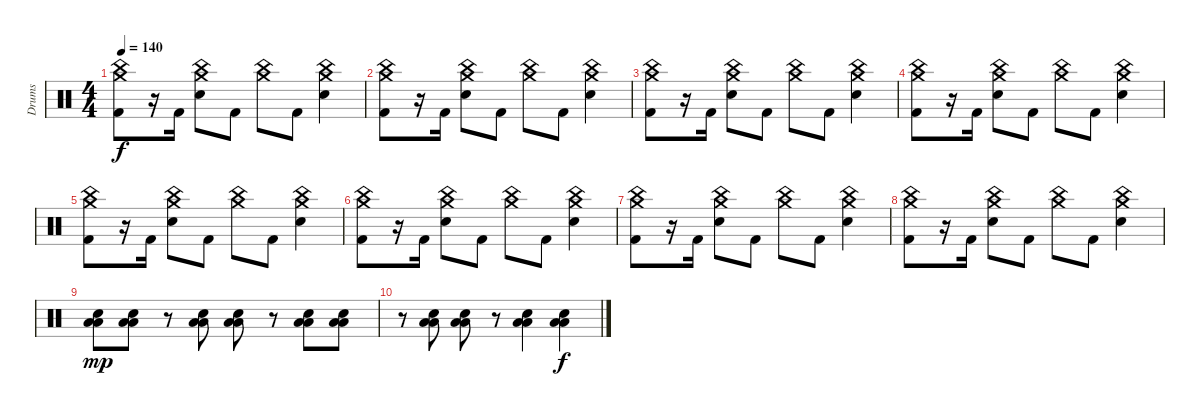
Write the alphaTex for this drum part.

\track ("Drums" "Drums") {instrument percussion}
\staff {score}
\articulation defaults
\ts (4 4)
\tempo 140
\clef neutral
\ks c
("Kick (hit) 2" "China (hit)" "Crash medium (hit)").8{dy f} r.16 "Kick (hit) 2".16 ("Electric Snare (hit)" "China (hit)" "Crash medium (hit)").8 "Kick (hit) 2".8 ("China (hit)" "Crash medium (hit)").8 "Kick (hit) 2".8 ("Electric Snare (hit)" "China (hit)" "Crash medium (hit)").4 |
("Kick (hit) 2" "China (hit)" "Crash medium (hit)").8 r.16 "Kick (hit) 2".16 ("Electric Snare (hit)" "China (hit)" "Crash medium (hit)").8 "Kick (hit) 2".8 ("China (hit)" "Crash medium (hit)").8 "Kick (hit) 2".8 ("Electric Snare (hit)" "China (hit)" "Crash medium (hit)").4 |
("Kick (hit) 2" "China (hit)" "Crash medium (hit)").8 r.16 "Kick (hit) 2".16 ("Electric Snare (hit)" "China (hit)" "Crash medium (hit)").8 "Kick (hit) 2".8 ("China (hit)" "Crash medium (hit)").8 "Kick (hit) 2".8 ("Electric Snare (hit)" "China (hit)" "Crash medium (hit)").4 |
("Kick (hit) 2" "China (hit)" "Crash medium (hit)").8 r.16 "Kick (hit) 2".16 ("Electric Snare (hit)" "China (hit)" "Crash medium (hit)").8 "Kick (hit) 2".8 ("China (hit)" "Crash medium (hit)").8 "Kick (hit) 2".8 ("Electric Snare (hit)" "China (hit)" "Crash medium (hit)").4 |
("Kick (hit) 2" "China (hit)" "Crash medium (hit)").8 r.16 "Kick (hit) 2".16 ("Electric Snare (hit)" "China (hit)" "Crash medium (hit)").8 "Kick (hit) 2".8 ("China (hit)" "Crash medium (hit)").8 "Kick (hit) 2".8 ("Electric Snare (hit)" "China (hit)" "Crash medium (hit)").4 |
("Kick (hit) 2" "China (hit)" "Crash medium (hit)").8 r.16 "Kick (hit) 2".16 ("Electric Snare (hit)" "China (hit)" "Crash medium (hit)").8 "Kick (hit) 2".8 ("China (hit)" "Crash medium (hit)").8 "Kick (hit) 2".8 ("Electric Snare (hit)" "China (hit)" "Crash medium (hit)").4 |
("Kick (hit) 2" "China (hit)" "Crash medium (hit)").8 r.16 "Kick (hit) 2".16 ("Electric Snare (hit)" "China (hit)" "Crash medium (hit)").8 "Kick (hit) 2".8 ("China (hit)" "Crash medium (hit)").8 "Kick (hit) 2".8 ("Electric Snare (hit)" "China (hit)" "Crash medium (hit)").4 |
("Kick (hit) 2" "China (hit)" "Crash medium (hit)").8 r.16 "Kick (hit) 2".16 ("Electric Snare (hit)" "China (hit)" "Crash medium (hit)").8 "Kick (hit) 2".8 ("China (hit)" "Crash medium (hit)").8 "Kick (hit) 2".8 ("Electric Snare (hit)" "China (hit)" "Crash medium (hit)").4 |
("Electric Snare (hit)" "Low Tom (hit)" "Low Floor Tom (hit)").8{dy mp volume 16} ("Electric Snare (hit)" "Low Tom (hit)" "Low Floor Tom (hit)").8 r.8 ("Electric Snare (hit)" "Low Tom (hit)" "Low Floor Tom (hit)").8 ("Electric Snare (hit)" "Low Tom (hit)" "Low Floor Tom (hit)").8 r.8 ("Electric Snare (hit)" "Low Tom (hit)" "Low Floor Tom (hit)").8 ("Electric Snare (hit)" "Low Tom (hit)" "Low Floor Tom (hit)").8 |
r.8 ("Electric Snare (hit)" "Low Tom (hit)" "Low Floor Tom (hit)").8 ("Electric Snare (hit)" "Low Tom (hit)" "Low Floor Tom (hit)").8 r.8 ("Electric Snare (hit)" "Low Tom (hit)" "Low Floor Tom (hit)").4 ("Electric Snare (hit)" "Low Tom (hit)" "Low Floor Tom (hit)").4{dy f}
